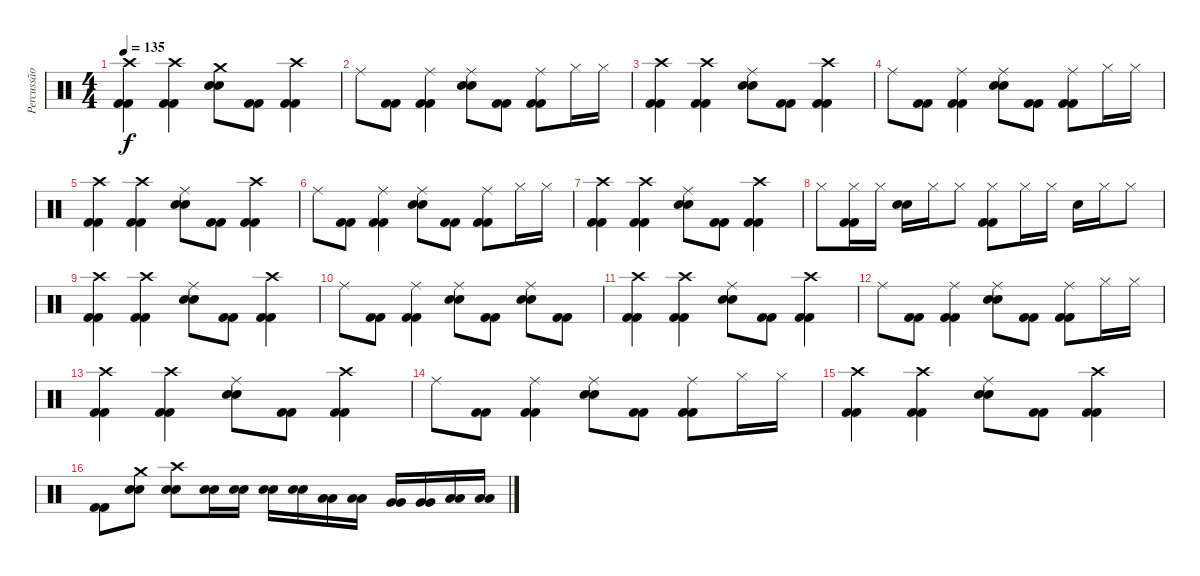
\track ("Percussão" "Percussão") {instrument percussion}
\staff {score}
\articulation defaults
\ts (4 4)
\tempo 135
\clef neutral
\ks c
("Crash high (hit)" "Kick (hit) 2" "Kick (hit) 2").4{dy f} ("Crash high (hit)" "Kick (hit) 2" "Kick (hit) 2").4 ("Crash medium (hit)" "Electric Snare (hit)" "Electric Snare (hit)").8 ("Kick (hit) 2" "Kick (hit) 2").8 ("Crash high (hit)" "Kick (hit) 2" "Kick (hit) 2").4 |
"Ride (middle)".8 ("Kick (hit) 2" "Kick (hit) 2").8 ("Ride (middle)" "Kick (hit) 2" "Kick (hit) 2").4 ("Ride (middle)" "Electric Snare (hit)" "Electric Snare (hit)").8 ("Kick (hit) 2" "Kick (hit) 2").8 ("Ride (middle)" "Kick (hit) 2" "Kick (hit) 2").8 "Hi-Hat (closed)".16 "Hi-Hat (closed)".16 |
("Crash high (hit)" "Kick (hit) 2" "Kick (hit) 2").4 ("Crash high (hit)" "Kick (hit) 2" "Kick (hit) 2").4 ("Ride (middle)" "Electric Snare (hit)" "Electric Snare (hit)").8 ("Kick (hit) 2" "Kick (hit) 2").8 ("Crash high (hit)" "Kick (hit) 2" "Kick (hit) 2").4 |
"Ride (middle)".8 ("Kick (hit) 2" "Kick (hit) 2").8 ("Ride (middle)" "Kick (hit) 2" "Kick (hit) 2").4 ("Ride (middle)" "Electric Snare (hit)" "Electric Snare (hit)").8 ("Kick (hit) 2" "Kick (hit) 2").8 ("Ride (middle)" "Kick (hit) 2" "Kick (hit) 2").8 "Hi-Hat (closed)".16 "Hi-Hat (closed)".16 |
("Crash high (hit)" "Kick (hit) 2" "Kick (hit) 2").4 ("Crash high (hit)" "Kick (hit) 2" "Kick (hit) 2").4 ("Ride (middle)" "Electric Snare (hit)" "Electric Snare (hit)").8 ("Kick (hit) 2" "Kick (hit) 2").8 ("Crash high (hit)" "Kick (hit) 2" "Kick (hit) 2").4 |
"Ride (middle)".8 ("Kick (hit) 2" "Kick (hit) 2").8 ("Ride (middle)" "Kick (hit) 2" "Kick (hit) 2").4 ("Ride (middle)" "Electric Snare (hit)" "Electric Snare (hit)").8 ("Kick (hit) 2" "Kick (hit) 2").8 ("Ride (middle)" "Kick (hit) 2" "Kick (hit) 2").8 "Hi-Hat (closed)".16 "Hi-Hat (closed)".16 |
("Crash high (hit)" "Kick (hit) 2" "Kick (hit) 2").4 ("Crash high (hit)" "Kick (hit) 2" "Kick (hit) 2").4 ("Ride (middle)" "Electric Snare (hit)" "Electric Snare (hit)").8 ("Kick (hit) 2" "Kick (hit) 2").8 ("Crash high (hit)" "Kick (hit) 2" "Kick (hit) 2").4 |
"Hi-Hat (closed)".8 ("Hi-Hat (closed)" "Kick (hit) 2" "Kick (hit) 2").16 "Hi-Hat (closed)".16 ("Electric Snare (hit)" "Electric Snare (hit)").16 "Hi-Hat (closed)".16 "Hi-Hat (closed)".8 ("Hi-Hat (closed)" "Kick (hit) 2" "Kick (hit) 2").8 "Hi-Hat (closed)".16 "Hi-Hat (closed)".16 "Electric Snare (hit)".16 "Hi-Hat (closed)".16 "Hi-Hat (closed)".8 |
("Crash high (hit)" "Kick (hit) 2" "Kick (hit) 2").4 ("Crash high (hit)" "Kick (hit) 2" "Kick (hit) 2").4 ("Ride (middle)" "Electric Snare (hit)" "Electric Snare (hit)").8 ("Kick (hit) 2" "Kick (hit) 2").8 ("Crash high (hit)" "Kick (hit) 2" "Kick (hit) 2").4 |
"Ride (middle)".8 ("Kick (hit) 2" "Kick (hit) 2").8 ("Ride (middle)" "Kick (hit) 2" "Kick (hit) 2").4 ("Ride (middle)" "Electric Snare (hit)" "Electric Snare (hit)").8 ("Kick (hit) 2" "Kick (hit) 2").8 ("Ride (middle)" "Electric Snare (hit)" "Electric Snare (hit)").8 ("Kick (hit) 2" "Kick (hit) 2").8 |
("Crash high (hit)" "Kick (hit) 2" "Kick (hit) 2").4 ("Crash high (hit)" "Kick (hit) 2" "Kick (hit) 2").4 ("Ride (middle)" "Electric Snare (hit)" "Electric Snare (hit)").8 ("Kick (hit) 2" "Kick (hit) 2").8 ("Crash high (hit)" "Kick (hit) 2" "Kick (hit) 2").4 |
"Ride (middle)".8 ("Kick (hit) 2" "Kick (hit) 2").8 ("Ride (middle)" "Kick (hit) 2" "Kick (hit) 2").4 ("Ride (middle)" "Electric Snare (hit)" "Electric Snare (hit)").8 ("Kick (hit) 2" "Kick (hit) 2").8 ("Ride (middle)" "Kick (hit) 2" "Kick (hit) 2").8 "Hi-Hat (closed)".16 "Hi-Hat (closed)".16 |
("Crash high (hit)" "Kick (hit) 2" "Kick (hit) 2").4 ("Crash high (hit)" "Kick (hit) 2" "Kick (hit) 2").4 ("Ride (middle)" "Electric Snare (hit)" "Electric Snare (hit)").8 ("Kick (hit) 2" "Kick (hit) 2").8 ("Crash high (hit)" "Kick (hit) 2" "Kick (hit) 2").4 |
"Ride (middle)".8 ("Kick (hit) 2" "Kick (hit) 2").8 ("Ride (middle)" "Kick (hit) 2" "Kick (hit) 2").4 ("Ride (middle)" "Electric Snare (hit)" "Electric Snare (hit)").8 ("Kick (hit) 2" "Kick (hit) 2").8 ("Ride (middle)" "Kick (hit) 2" "Kick (hit) 2").8 "Hi-Hat (closed)".16 "Hi-Hat (closed)".16 |
("Crash high (hit)" "Kick (hit) 2" "Kick (hit) 2").4 ("Crash high (hit)" "Kick (hit) 2" "Kick (hit) 2").4 ("Ride (middle)" "Electric Snare (hit)" "Electric Snare (hit)").8 ("Kick (hit) 2" "Kick (hit) 2").8 ("Crash high (hit)" "Kick (hit) 2" "Kick (hit) 2").4 |
("Kick (hit) 2" "Kick (hit) 2").8 ("Crash medium (hit)" "Electric Snare (hit)" "Electric Snare (hit)").8 ("Crash high (hit)" "Electric Snare (hit)" "Electric Snare (hit)").8 ("Electric Snare (hit)" "Electric Snare (hit)").16 ("Electric Snare (hit)" "Electric Snare (hit)").16 ("Electric Snare (hit)" "Electric Snare (hit)").16 ("Electric Snare (hit)" "Electric Snare (hit)").16 ("Low Tom (hit)" "Low Tom (hit)").16 ("Low Tom (hit)" "Low Tom (hit)").16 ("Very Low Tom (hit)" "Very Low Tom (hit)").16 ("Very Low Tom (hit)" "Very Low Tom (hit)").16 ("Low Floor Tom (hit)" "Low Floor Tom (hit)").16 ("Low Floor Tom (hit)" "Low Floor Tom (hit)").16
